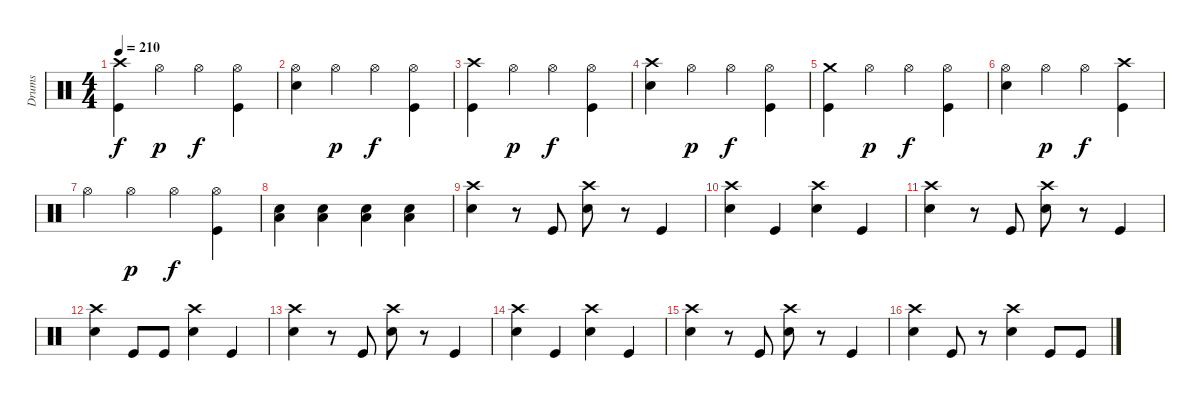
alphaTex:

\track ("Drums" "Drums") {instrument percussion}
\staff {score}
\articulation defaults
\ts (4 4)
\tempo 210
\clef neutral
\ks c
("Crash high (hit)" "Kick (hit)").4{dy f} "Hi-Hat (open)".4{dy p} "Hi-Hat (open)".4{dy f} ("Hi-Hat (open)" "Kick (hit)").4 |
("Hi-Hat (open)" "Snare (hit) 2").4 "Hi-Hat (open)".4{dy p} "Hi-Hat (open)".4{dy f} ("Hi-Hat (open)" "Kick (hit)").4 |
("Crash high (hit)" "Kick (hit)").4 "Hi-Hat (open)".4{dy p} "Hi-Hat (open)".4{dy f} ("Hi-Hat (open)" "Kick (hit)").4 |
("Crash high (hit)" "Snare (hit) 2").4 "Hi-Hat (open)".4{dy p} "Hi-Hat (open)".4{dy f} ("Hi-Hat (open)" "Kick (hit)").4 |
("Crash medium (hit)" "Kick (hit)").4 "Hi-Hat (open)".4{dy p} "Hi-Hat (open)".4{dy f} ("Hi-Hat (open)" "Kick (hit)").4 |
("Hi-Hat (open)" "Snare (hit) 2").4 "Hi-Hat (open)".4{dy p} "Hi-Hat (open)".4{dy f} ("Crash high (hit)" "Kick (hit)").4 |
"Hi-Hat (open)".4 "Hi-Hat (open)".4{dy p} "Hi-Hat (open)".4{dy f} ("Hi-Hat (open)" "Kick (hit)").4 |
("Snare (hit) 2" "Low Tom (hit)").4 ("Snare (hit) 2" "Low Tom (hit)").4 ("Snare (hit) 2" "Low Tom (hit)").4 ("Snare (hit) 2" "Low Tom (hit)").4 |
("Crash high (hit)" "Snare (hit) 2").4 r.8 "Kick (hit)".8 ("Crash high (hit)" "Snare (hit) 2").8 r.8 "Kick (hit)".4 |
("Crash high (hit)" "Snare (hit) 2").4 "Kick (hit)".4 ("Crash high (hit)" "Snare (hit) 2").4 "Kick (hit)".4 |
("Crash high (hit)" "Snare (hit) 2").4 r.8 "Kick (hit)".8 ("Crash high (hit)" "Snare (hit) 2").8 r.8 "Kick (hit)".4 |
("Crash high (hit)" "Snare (hit) 2").4 "Kick (hit)".8 "Kick (hit)".8 ("Crash high (hit)" "Snare (hit) 2").4 "Kick (hit)".4 |
("Crash high (hit)" "Snare (hit) 2").4 r.8 "Kick (hit)".8 ("Crash high (hit)" "Snare (hit) 2").8 r.8 "Kick (hit)".4 |
("Crash high (hit)" "Snare (hit) 2").4 "Kick (hit)".4 ("Crash high (hit)" "Snare (hit) 2").4 "Kick (hit)".4 |
("Crash high (hit)" "Snare (hit) 2").4 r.8 "Kick (hit)".8 ("Crash high (hit)" "Snare (hit) 2").8 r.8 "Kick (hit)".4 |
("Crash high (hit)" "Snare (hit) 2").4 "Kick (hit)".8 r.8 ("Crash high (hit)" "Snare (hit) 2").4 "Kick (hit)".8 "Kick (hit)".8
